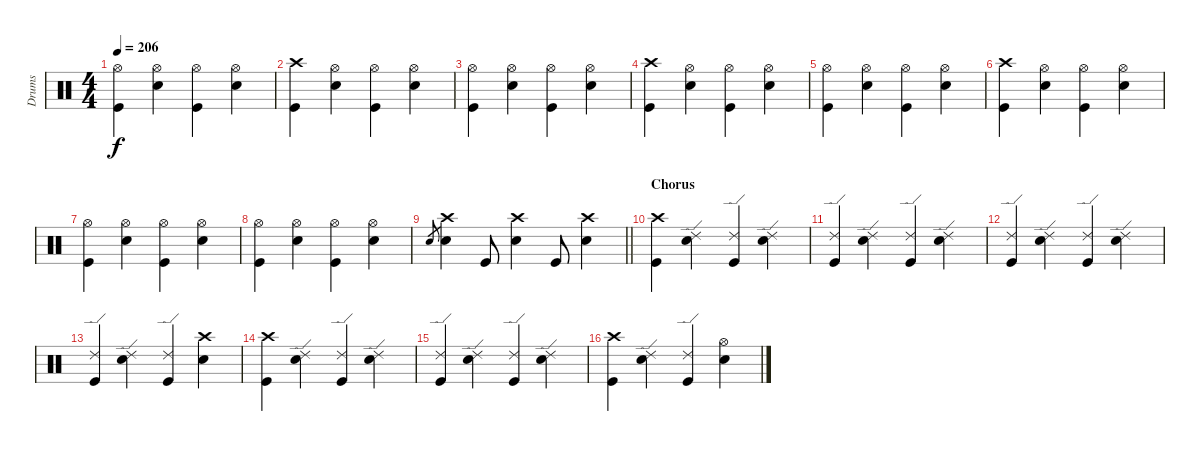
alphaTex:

\track ("Drums" "Drums") {instrument percussion}
\staff {score}
\articulation defaults
\ts (4 4)
\tempo 206
\clef neutral
\ks c
("Hi-Hat (open)" "Kick (hit)").4{dy f} ("Hi-Hat (open)" "Electric Snare (hit)").4 ("Hi-Hat (open)" "Kick (hit)").4 ("Hi-Hat (open)" "Electric Snare (hit)").4 |
("Crash high (hit)" "Kick (hit)").4 ("Hi-Hat (open)" "Electric Snare (hit)").4 ("Hi-Hat (open)" "Kick (hit)").4 ("Hi-Hat (open)" "Electric Snare (hit)").4 |
("Hi-Hat (open)" "Kick (hit)").4 ("Hi-Hat (open)" "Electric Snare (hit)").4 ("Hi-Hat (open)" "Kick (hit)").4 ("Hi-Hat (open)" "Electric Snare (hit)").4 |
("Crash high (hit)" "Kick (hit)").4 ("Hi-Hat (open)" "Electric Snare (hit)").4 ("Hi-Hat (open)" "Kick (hit)").4 ("Hi-Hat (open)" "Electric Snare (hit)").4 |
("Hi-Hat (open)" "Kick (hit)").4 ("Hi-Hat (open)" "Electric Snare (hit)").4 ("Hi-Hat (open)" "Kick (hit)").4 ("Hi-Hat (open)" "Electric Snare (hit)").4 |
("Crash high (hit)" "Kick (hit)").4 ("Hi-Hat (open)" "Electric Snare (hit)").4 ("Hi-Hat (open)" "Kick (hit)").4 ("Hi-Hat (open)" "Electric Snare (hit)").4 |
("Hi-Hat (open)" "Kick (hit)").4 ("Hi-Hat (open)" "Electric Snare (hit)").4 ("Hi-Hat (open)" "Kick (hit)").4 ("Hi-Hat (open)" "Electric Snare (hit)").4 |
("Hi-Hat (open)" "Kick (hit)").4 ("Hi-Hat (open)" "Electric Snare (hit)").4 ("Hi-Hat (open)" "Kick (hit)").4 ("Hi-Hat (open)" "Electric Snare (hit)").4 |
\barLineRight lightlight "Electric Snare (hit)".8{gr}
("Crash high (hit)" "Electric Snare (hit)").4 "Kick (hit)".8 ("Crash high (hit)" "Electric Snare (hit)").4 "Kick (hit)".8 ("Crash high (hit)" "Electric Snare (hit)").4 |
\section ("" "Chorus")
("Crash high (hit)" "Kick (hit)").4 ("Ride (edge) 2" "Electric Snare (hit)").4 ("Ride (edge) 2" "Kick (hit)").4 ("Ride (edge) 2" "Electric Snare (hit)").4 |
("Ride (edge) 2" "Kick (hit)").4 ("Ride (edge) 2" "Electric Snare (hit)").4 ("Ride (edge) 2" "Kick (hit)").4 ("Ride (edge) 2" "Electric Snare (hit)").4 |
("Ride (edge) 2" "Kick (hit)").4 ("Ride (edge) 2" "Electric Snare (hit)").4 ("Ride (edge) 2" "Kick (hit)").4 ("Ride (edge) 2" "Electric Snare (hit)").4 |
("Ride (edge) 2" "Kick (hit)").4 ("Ride (edge) 2" "Electric Snare (hit)").4 ("Ride (edge) 2" "Kick (hit)").4 ("Crash high (hit)" "Electric Snare (hit)").4 |
("Crash high (hit)" "Kick (hit)").4 ("Ride (edge) 2" "Electric Snare (hit)").4 ("Ride (edge) 2" "Kick (hit)").4 ("Ride (edge) 2" "Electric Snare (hit)").4 |
("Ride (edge) 2" "Kick (hit)").4 ("Ride (edge) 2" "Electric Snare (hit)").4 ("Ride (edge) 2" "Kick (hit)").4 ("Ride (edge) 2" "Electric Snare (hit)").4 |
("Crash high (hit)" "Kick (hit)").4 ("Ride (edge) 2" "Electric Snare (hit)").4 ("Ride (edge) 2" "Kick (hit)").4 ("Hi-Hat (open)" "Electric Snare (hit)").4
